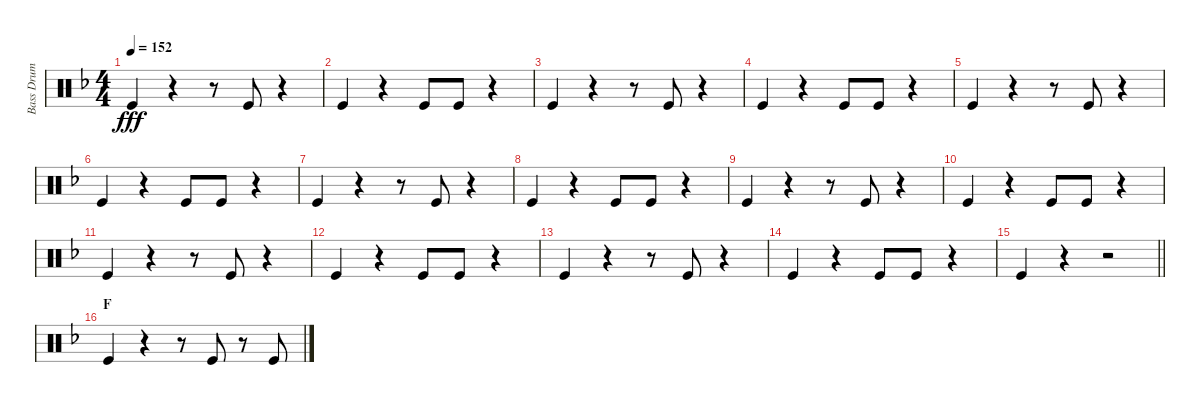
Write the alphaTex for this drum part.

\track ("Bass Drum" "Bass Drum") {instrument percussion}
\staff {score}
\articulation defaults
\ts (4 4)
\tempo 152
\clef neutral
\ks f "Kick (hit)".4{dy fff}
r.4 r.8 "Kick (hit)".8 r.4 |
"Kick (hit)".4 r.4 "Kick (hit)".8 "Kick (hit)".8 r.4 |
"Kick (hit)".4 r.4 r.8 "Kick (hit)".8 r.4 |
"Kick (hit)".4 r.4 "Kick (hit)".8 "Kick (hit)".8 r.4 |
"Kick (hit)".4 r.4 r.8 "Kick (hit)".8 r.4 |
"Kick (hit)".4 r.4 "Kick (hit)".8 "Kick (hit)".8 r.4 |
"Kick (hit)".4 r.4 r.8 "Kick (hit)".8 r.4 |
"Kick (hit)".4 r.4 "Kick (hit)".8 "Kick (hit)".8 r.4 |
"Kick (hit)".4 r.4 r.8 "Kick (hit)".8 r.4 |
"Kick (hit)".4 r.4 "Kick (hit)".8 "Kick (hit)".8 r.4 |
"Kick (hit)".4 r.4 r.8 "Kick (hit)".8 r.4 |
"Kick (hit)".4 r.4 "Kick (hit)".8 "Kick (hit)".8 r.4 |
"Kick (hit)".4 r.4 r.8 "Kick (hit)".8 r.4 |
"Kick (hit)".4 r.4 "Kick (hit)".8 "Kick (hit)".8 r.4 |
\barLineRight lightlight "Kick (hit)".4
r.4 r.2 |
\section ("" "F")
"Kick (hit)".4 r.4 r.8 "Kick (hit)".8 r.8 "Kick (hit)".8
